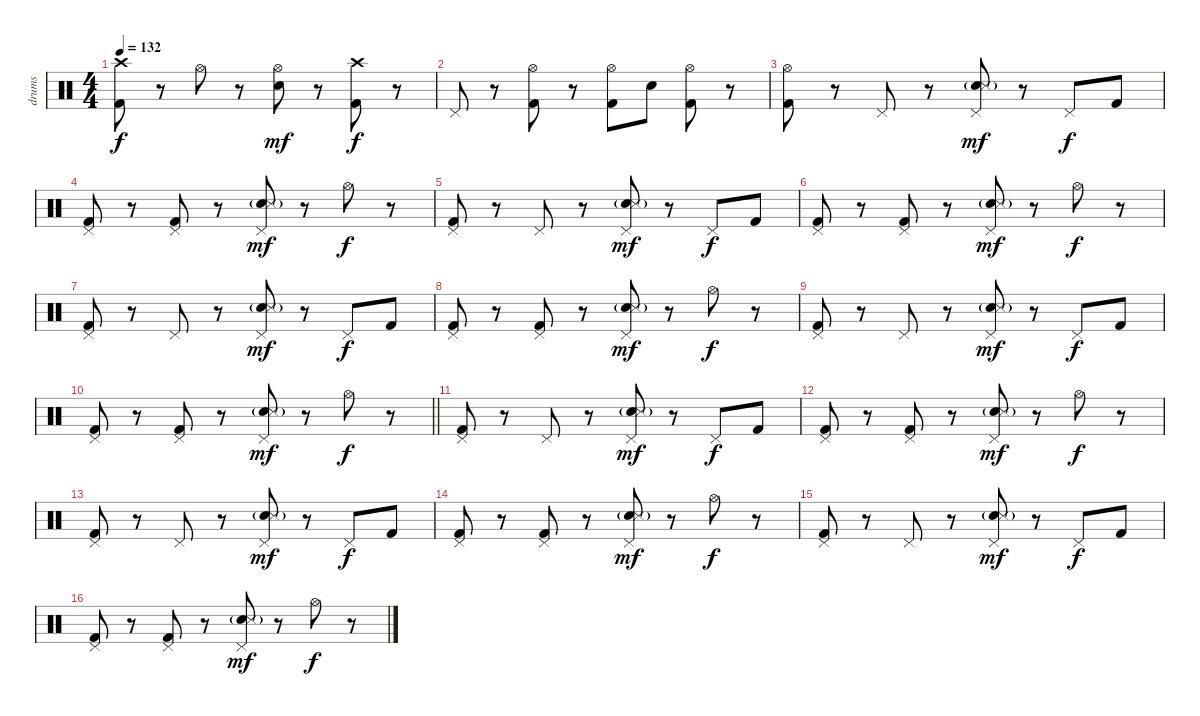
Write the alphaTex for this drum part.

\track ("drums" "drums") {instrument percussion}
\staff {score}
\articulation defaults
\ts (4 4)
\tempo 132
\clef neutral
\ks c
("Crash high (hit)" "Kick (hit) 2").8{dy f} r.8 "Hi-Hat (open)".8 r.8 ("Hi-Hat (open)" "Snare (hit) 2").8{dy mf} r.8 ("Crash high (hit)" "Kick (hit) 2").8{dy f} r.8 |
"Pedal Hi-Hat (hit)".8 r.8 ("Hi-Hat (open)" "Kick (hit) 2").8 r.8 ("Hi-Hat (open)" "Kick (hit) 2").8 "Snare (hit) 2".8 ("Hi-Hat (open)" "Kick (hit) 2").8 r.8 |
("Hi-Hat (open)" "Kick (hit) 2").8 r.8 "Pedal Hi-Hat (hit)".8 r.8 ("Pedal Hi-Hat (hit)" "Electric Snare (hit)"{g} "Snare (side stick) 3").8{dy mf} r.8 "Pedal Hi-Hat (hit)".8{dy f} "Kick (hit) 2".8 |
("Pedal Hi-Hat (hit)" "Kick (hit) 2").8 r.8 ("Pedal Hi-Hat (hit)" "Kick (hit) 2").8 r.8 ("Pedal Hi-Hat (hit)" "Electric Snare (hit)"{g} "Snare (side stick) 3").8{dy mf} r.8 "Hi-Hat (open)".8{dy f} r.8 |
("Pedal Hi-Hat (hit)" "Kick (hit) 2").8 r.8 "Pedal Hi-Hat (hit)".8 r.8 ("Pedal Hi-Hat (hit)" "Electric Snare (hit)"{g} "Snare (side stick) 3").8{dy mf} r.8 "Pedal Hi-Hat (hit)".8{dy f} "Kick (hit) 2".8 |
("Pedal Hi-Hat (hit)" "Kick (hit) 2").8 r.8 ("Pedal Hi-Hat (hit)" "Kick (hit) 2").8 r.8 ("Pedal Hi-Hat (hit)" "Electric Snare (hit)"{g} "Snare (side stick) 3").8{dy mf} r.8 "Hi-Hat (open)".8{dy f} r.8 |
("Pedal Hi-Hat (hit)" "Kick (hit) 2").8 r.8 "Pedal Hi-Hat (hit)".8 r.8 ("Pedal Hi-Hat (hit)" "Electric Snare (hit)"{g} "Snare (side stick) 3").8{dy mf} r.8 "Pedal Hi-Hat (hit)".8{dy f} "Kick (hit) 2".8 |
("Pedal Hi-Hat (hit)" "Kick (hit) 2").8 r.8 ("Pedal Hi-Hat (hit)" "Kick (hit) 2").8 r.8 ("Pedal Hi-Hat (hit)" "Electric Snare (hit)"{g} "Snare (side stick) 3").8{dy mf} r.8 "Hi-Hat (open)".8{dy f} r.8 |
("Pedal Hi-Hat (hit)" "Kick (hit) 2").8 r.8 "Pedal Hi-Hat (hit)".8 r.8 ("Pedal Hi-Hat (hit)" "Electric Snare (hit)"{g} "Snare (side stick) 3").8{dy mf} r.8 "Pedal Hi-Hat (hit)".8{dy f} "Kick (hit) 2".8 |
\barLineRight lightlight
("Pedal Hi-Hat (hit)" "Kick (hit) 2").8 r.8 ("Pedal Hi-Hat (hit)" "Kick (hit) 2").8 r.8 ("Pedal Hi-Hat (hit)" "Electric Snare (hit)"{g} "Snare (side stick) 3").8{dy mf} r.8 "Hi-Hat (open)".8{dy f} r.8 |
("Pedal Hi-Hat (hit)" "Kick (hit) 2").8 r.8 "Pedal Hi-Hat (hit)".8 r.8 ("Pedal Hi-Hat (hit)" "Electric Snare (hit)"{g} "Snare (side stick) 3").8{dy mf} r.8 "Pedal Hi-Hat (hit)".8{dy f} "Kick (hit) 2".8 |
("Pedal Hi-Hat (hit)" "Kick (hit) 2").8 r.8 ("Pedal Hi-Hat (hit)" "Kick (hit) 2").8 r.8 ("Pedal Hi-Hat (hit)" "Electric Snare (hit)"{g} "Snare (side stick) 3").8{dy mf} r.8 "Hi-Hat (open)".8{dy f} r.8 |
("Pedal Hi-Hat (hit)" "Kick (hit) 2").8 r.8 "Pedal Hi-Hat (hit)".8 r.8 ("Pedal Hi-Hat (hit)" "Electric Snare (hit)"{g} "Snare (side stick) 3").8{dy mf} r.8 "Pedal Hi-Hat (hit)".8{dy f} "Kick (hit) 2".8 |
("Pedal Hi-Hat (hit)" "Kick (hit) 2").8 r.8 ("Pedal Hi-Hat (hit)" "Kick (hit) 2").8 r.8 ("Pedal Hi-Hat (hit)" "Electric Snare (hit)"{g} "Snare (side stick) 3").8{dy mf} r.8 "Hi-Hat (open)".8{dy f} r.8 |
("Pedal Hi-Hat (hit)" "Kick (hit) 2").8 r.8 "Pedal Hi-Hat (hit)".8 r.8 ("Pedal Hi-Hat (hit)" "Electric Snare (hit)"{g} "Snare (side stick) 3").8{dy mf} r.8 "Pedal Hi-Hat (hit)".8{dy f} "Kick (hit) 2".8 |
("Pedal Hi-Hat (hit)" "Kick (hit) 2").8 r.8 ("Pedal Hi-Hat (hit)" "Kick (hit) 2").8 r.8 ("Pedal Hi-Hat (hit)" "Electric Snare (hit)"{g} "Snare (side stick) 3").8{dy mf} r.8 "Hi-Hat (open)".8{dy f} r.8
